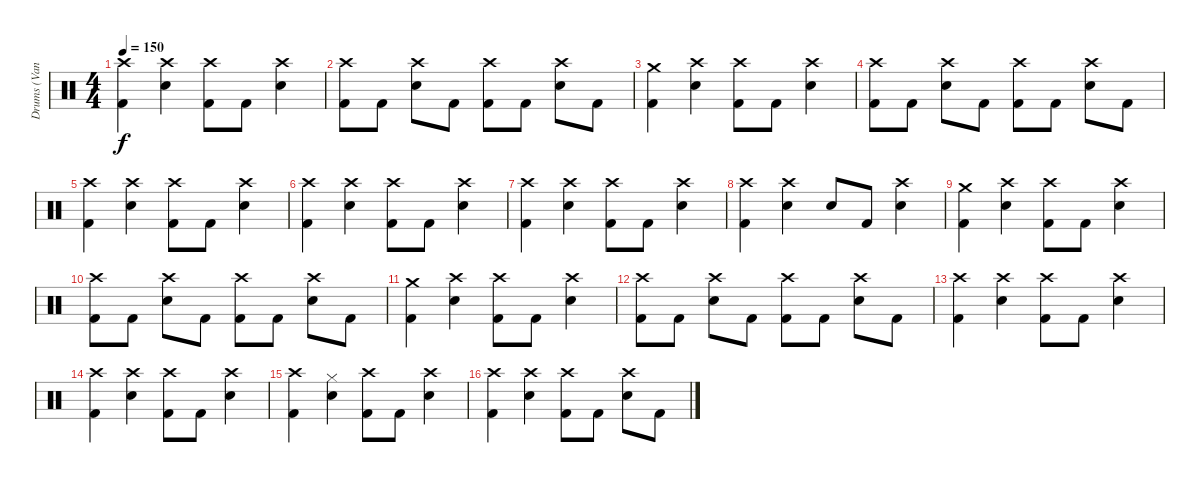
\track ("Drums (Vandel)" "Drums (Van") {instrument percussion}
\staff {score}
\articulation defaults
\ts (4 4)
\tempo 150
\clef neutral
\ks c
("Crash high (hit)" "Kick (hit) 2").4{dy f} ("Crash high (hit)" "Snare (hit) 2").4 ("Crash high (hit)" "Kick (hit) 2").8 "Kick (hit) 2".8 ("Crash high (hit)" "Snare (hit) 2").4 |
("Crash high (hit)" "Kick (hit) 2").8 "Kick (hit) 2".8 ("Crash high (hit)" "Snare (hit) 2").8 "Kick (hit) 2".8 ("Crash high (hit)" "Kick (hit) 2").8 "Kick (hit) 2".8 ("Crash high (hit)" "Snare (hit) 2").8 "Kick (hit) 2".8 |
("Crash medium (hit)" "Kick (hit) 2").4 ("Crash high (hit)" "Snare (hit) 2").4 ("Crash high (hit)" "Kick (hit) 2").8 "Kick (hit) 2".8 ("Crash high (hit)" "Snare (hit) 2").4 |
("Crash high (hit)" "Kick (hit) 2").8 "Kick (hit) 2".8 ("Crash high (hit)" "Snare (hit) 2").8 "Kick (hit) 2".8 ("Crash high (hit)" "Kick (hit) 2").8 "Kick (hit) 2".8 ("Crash high (hit)" "Snare (hit) 2").8 "Kick (hit) 2".8 |
("Crash high (hit)" "Kick (hit) 2").4 ("Crash high (hit)" "Snare (hit) 2").4 ("Crash high (hit)" "Kick (hit) 2").8 "Kick (hit) 2".8 ("Crash high (hit)" "Snare (hit) 2").4 |
("Crash high (hit)" "Kick (hit) 2").4 ("Crash high (hit)" "Snare (hit) 2").4 ("Crash high (hit)" "Kick (hit) 2").8 "Kick (hit) 2".8 ("Crash high (hit)" "Snare (hit) 2").4 |
("Crash high (hit)" "Kick (hit) 2").4 ("Crash high (hit)" "Snare (hit) 2").4 ("Crash high (hit)" "Kick (hit) 2").8 "Kick (hit) 2".8 ("Crash high (hit)" "Snare (hit) 2").4 |
("Crash high (hit)" "Kick (hit) 2").4 ("Crash high (hit)" "Snare (hit) 2").4 "Snare (hit) 2".8 "Kick (hit) 2".8 ("Crash high (hit)" "Snare (hit) 2").4 |
("Crash medium (hit)" "Kick (hit) 2").4 ("Crash high (hit)" "Snare (hit) 2").4 ("Crash high (hit)" "Kick (hit) 2").8 "Kick (hit) 2".8 ("Crash high (hit)" "Snare (hit) 2").4 |
("Crash high (hit)" "Kick (hit) 2").8 "Kick (hit) 2".8 ("Crash high (hit)" "Snare (hit) 2").8 "Kick (hit) 2".8 ("Crash high (hit)" "Kick (hit) 2").8 "Kick (hit) 2".8 ("Crash high (hit)" "Snare (hit) 2").8 "Kick (hit) 2".8 |
("Crash medium (hit)" "Kick (hit) 2").4 ("Crash high (hit)" "Snare (hit) 2").4 ("Crash high (hit)" "Kick (hit) 2").8 "Kick (hit) 2".8 ("Crash high (hit)" "Snare (hit) 2").4 |
("Crash high (hit)" "Kick (hit) 2").8 "Kick (hit) 2".8 ("Crash high (hit)" "Snare (hit) 2").8 "Kick (hit) 2".8 ("Crash high (hit)" "Kick (hit) 2").8 "Kick (hit) 2".8 ("Crash high (hit)" "Snare (hit) 2").8 "Kick (hit) 2".8 |
("Crash high (hit)" "Kick (hit) 2").4 ("Crash high (hit)" "Snare (hit) 2").4 ("Crash high (hit)" "Kick (hit) 2").8 "Kick (hit) 2".8 ("Crash high (hit)" "Snare (hit) 2").4 |
("Crash high (hit)" "Kick (hit) 2").4 ("Crash high (hit)" "Snare (hit) 2").4 ("Crash high (hit)" "Kick (hit) 2").8 "Kick (hit) 2".8 ("Crash high (hit)" "Snare (hit) 2").4 |
("Crash high (hit)" "Kick (hit) 2").4 ("Hi-Hat (closed)" "Snare (hit) 2").4 ("Crash high (hit)" "Kick (hit) 2").8 "Kick (hit) 2".8 ("Crash high (hit)" "Snare (hit) 2").4 |
("Crash high (hit)" "Kick (hit) 2").4 ("Crash high (hit)" "Snare (hit) 2").4 ("Crash high (hit)" "Kick (hit) 2").8 "Kick (hit) 2".8 ("Crash high (hit)" "Snare (hit) 2").8 "Kick (hit) 2".8
